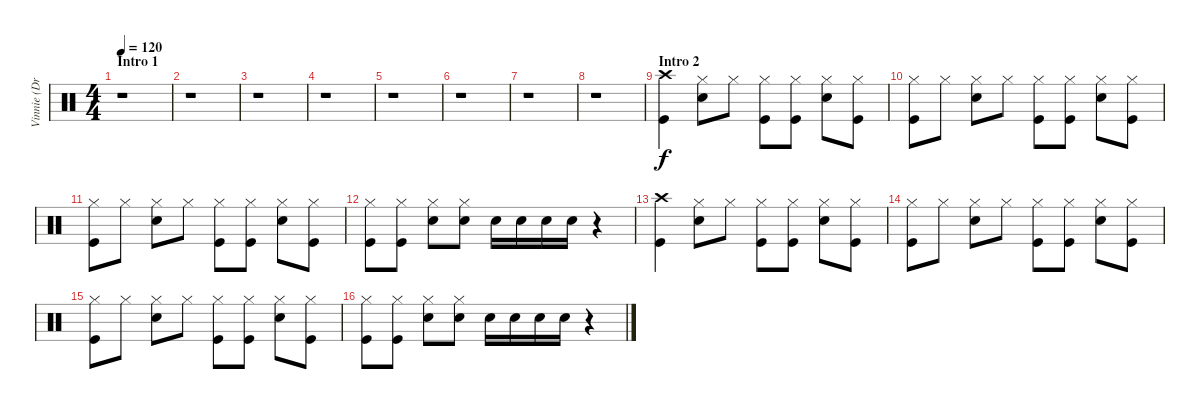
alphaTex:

\track ("Vinnie (Drums)" "Vinnie (Dr") {instrument percussion}
\staff {score}
\articulation defaults
\ts (4 4)
\section ("" "Intro 1")
\tempo 120
\clef neutral
\ks c
r.1{dy f} |
r.1 |
r.1 |
r.1 |
r.1 |
r.1 |
r.1 |
r.1 |
\section ("" "Intro 2")
("Crash high (hit)" "Kick (hit)").4 ("Hi-Hat (closed)" "Snare (hit) 2").8 "Hi-Hat (closed)".8 ("Hi-Hat (closed)" "Kick (hit)").8 ("Hi-Hat (closed)" "Kick (hit)").8 ("Hi-Hat (closed)" "Snare (hit) 2").8 ("Hi-Hat (closed)" "Kick (hit)").8 |
("Hi-Hat (closed)" "Kick (hit)").8 "Hi-Hat (closed)".8 ("Hi-Hat (closed)" "Snare (hit) 2").8 "Hi-Hat (closed)".8 ("Hi-Hat (closed)" "Kick (hit)").8 ("Hi-Hat (closed)" "Kick (hit)").8 ("Hi-Hat (closed)" "Snare (hit) 2").8 ("Hi-Hat (closed)" "Kick (hit)").8 |
("Hi-Hat (closed)" "Kick (hit)").8 "Hi-Hat (closed)".8 ("Hi-Hat (closed)" "Snare (hit) 2").8 "Hi-Hat (closed)".8 ("Hi-Hat (closed)" "Kick (hit)").8 ("Hi-Hat (closed)" "Kick (hit)").8 ("Hi-Hat (closed)" "Snare (hit) 2").8 ("Hi-Hat (closed)" "Kick (hit)").8 |
("Hi-Hat (closed)" "Kick (hit)").8 ("Hi-Hat (closed)" "Kick (hit)").8 ("Hi-Hat (closed)" "Snare (hit) 2").8 ("Hi-Hat (closed)" "Snare (hit) 2").8 "Snare (hit) 2".16 "Snare (hit) 2".16 "Snare (hit) 2".16 "Snare (hit) 2".16 r.4 |
("Crash high (hit)" "Kick (hit)").4 ("Hi-Hat (closed)" "Snare (hit) 2").8 "Hi-Hat (closed)".8 ("Hi-Hat (closed)" "Kick (hit)").8 ("Hi-Hat (closed)" "Kick (hit)").8 ("Hi-Hat (closed)" "Snare (hit) 2").8 ("Hi-Hat (closed)" "Kick (hit)").8 |
("Hi-Hat (closed)" "Kick (hit)").8 "Hi-Hat (closed)".8 ("Hi-Hat (closed)" "Snare (hit) 2").8 "Hi-Hat (closed)".8 ("Hi-Hat (closed)" "Kick (hit)").8 ("Hi-Hat (closed)" "Kick (hit)").8 ("Hi-Hat (closed)" "Snare (hit) 2").8 ("Hi-Hat (closed)" "Kick (hit)").8 |
("Hi-Hat (closed)" "Kick (hit)").8 "Hi-Hat (closed)".8 ("Hi-Hat (closed)" "Snare (hit) 2").8 "Hi-Hat (closed)".8 ("Hi-Hat (closed)" "Kick (hit)").8 ("Hi-Hat (closed)" "Kick (hit)").8 ("Hi-Hat (closed)" "Snare (hit) 2").8 ("Hi-Hat (closed)" "Kick (hit)").8 |
("Hi-Hat (closed)" "Kick (hit)").8 ("Hi-Hat (closed)" "Kick (hit)").8 ("Hi-Hat (closed)" "Snare (hit) 2").8 ("Hi-Hat (closed)" "Snare (hit) 2").8 "Snare (hit) 2".16 "Snare (hit) 2".16 "Snare (hit) 2".16 "Snare (hit) 2".16 r.4
